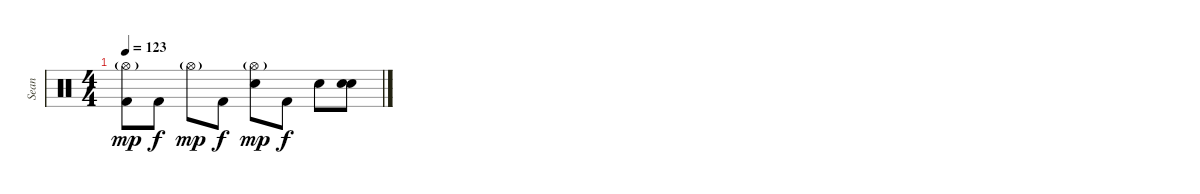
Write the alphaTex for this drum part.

\track ("Sean" "Sean") {instrument percussion}
\staff {score}
\articulation defaults
\ts (4 4)
\tempo 123
\clef neutral
\ks c
("Hi-Hat (open)"{g} "Kick (hit) 2").8{dy mp} "Kick (hit) 2".8{dy f} "Hi-Hat (open)"{g}.8{dy mp} "Kick (hit) 2".8{dy f} ("Hi-Hat (open)"{g} "Electric Snare (hit)").8{dy mp} "Kick (hit) 2".8{dy f} "Electric Snare (hit)".8 ("Electric Snare (hit)" "Electric Snare (hit)").8{bd 480}
